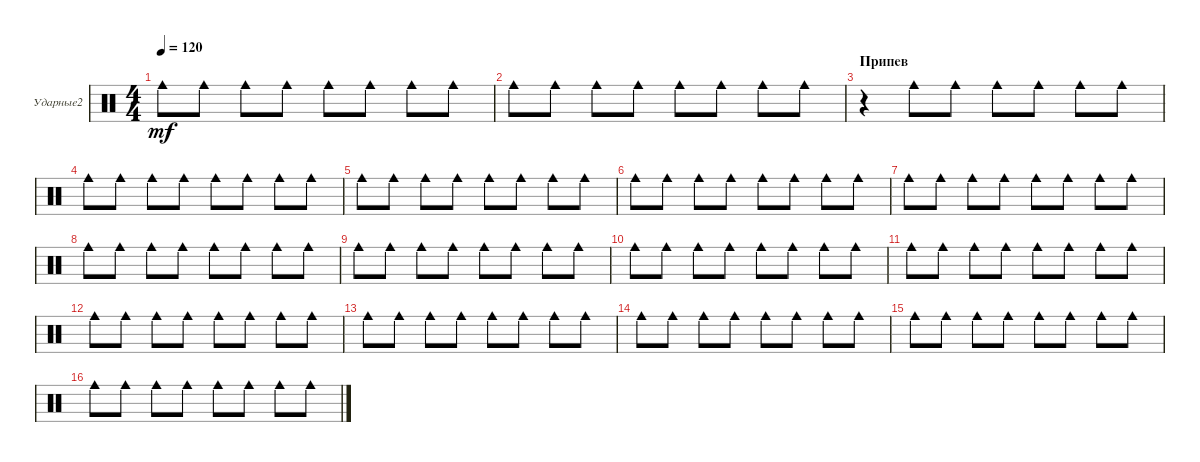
\defaultSystemsLayout 4
\bracketExtendMode groupsimilarinstruments
\firstSystemTrackNameOrientation horizontal
\otherSystemsTrackNameOrientation horizontal
\track ("Е.Кулаков" "Ударные2") {instrument percussion}
\staff {score}
\articulation defaults
\ts (4 4)
\tempo 120
\clef neutral
\ks c "Cowbell medium (hit)".8{dy mf} "Cowbell medium (hit)".8 "Cowbell medium (hit)".8 "Cowbell medium (hit)".8 "Cowbell medium (hit)".8 "Cowbell medium (hit)".8 "Cowbell medium (hit)".8 "Cowbell medium (hit)".8
|
"Cowbell medium (hit)".8 "Cowbell medium (hit)".8 "Cowbell medium (hit)".8 "Cowbell medium (hit)".8 "Cowbell medium (hit)".8 "Cowbell medium (hit)".8 "Cowbell medium (hit)".8 "Cowbell medium (hit)".8 |
\section ("" "Припев")
r.4 "Cowbell medium (hit)".8 "Cowbell medium (hit)".8 "Cowbell medium (hit)".8 "Cowbell medium (hit)".8 "Cowbell medium (hit)".8 "Cowbell medium (hit)".8 |
"Cowbell medium (hit)".8 "Cowbell medium (hit)".8 "Cowbell medium (hit)".8 "Cowbell medium (hit)".8 "Cowbell medium (hit)".8 "Cowbell medium (hit)".8 "Cowbell medium (hit)".8 "Cowbell medium (hit)".8 |
"Cowbell medium (hit)".8 "Cowbell medium (hit)".8 "Cowbell medium (hit)".8 "Cowbell medium (hit)".8 "Cowbell medium (hit)".8 "Cowbell medium (hit)".8 "Cowbell medium (hit)".8 "Cowbell medium (hit)".8 |
"Cowbell medium (hit)".8 "Cowbell medium (hit)".8 "Cowbell medium (hit)".8 "Cowbell medium (hit)".8 "Cowbell medium (hit)".8 "Cowbell medium (hit)".8 "Cowbell medium (hit)".8 "Cowbell medium (hit)".8 |
"Cowbell medium (hit)".8 "Cowbell medium (hit)".8 "Cowbell medium (hit)".8 "Cowbell medium (hit)".8 "Cowbell medium (hit)".8 "Cowbell medium (hit)".8 "Cowbell medium (hit)".8 "Cowbell medium (hit)".8 |
"Cowbell medium (hit)".8 "Cowbell medium (hit)".8 "Cowbell medium (hit)".8 "Cowbell medium (hit)".8 "Cowbell medium (hit)".8 "Cowbell medium (hit)".8 "Cowbell medium (hit)".8 "Cowbell medium (hit)".8 |
"Cowbell medium (hit)".8 "Cowbell medium (hit)".8 "Cowbell medium (hit)".8 "Cowbell medium (hit)".8 "Cowbell medium (hit)".8 "Cowbell medium (hit)".8 "Cowbell medium (hit)".8 "Cowbell medium (hit)".8 |
"Cowbell medium (hit)".8 "Cowbell medium (hit)".8 "Cowbell medium (hit)".8 "Cowbell medium (hit)".8 "Cowbell medium (hit)".8 "Cowbell medium (hit)".8 "Cowbell medium (hit)".8 "Cowbell medium (hit)".8 |
"Cowbell medium (hit)".8 "Cowbell medium (hit)".8 "Cowbell medium (hit)".8 "Cowbell medium (hit)".8 "Cowbell medium (hit)".8 "Cowbell medium (hit)".8 "Cowbell medium (hit)".8 "Cowbell medium (hit)".8 |
"Cowbell medium (hit)".8 "Cowbell medium (hit)".8 "Cowbell medium (hit)".8 "Cowbell medium (hit)".8 "Cowbell medium (hit)".8 "Cowbell medium (hit)".8 "Cowbell medium (hit)".8 "Cowbell medium (hit)".8 |
"Cowbell medium (hit)".8 "Cowbell medium (hit)".8 "Cowbell medium (hit)".8 "Cowbell medium (hit)".8 "Cowbell medium (hit)".8 "Cowbell medium (hit)".8 "Cowbell medium (hit)".8 "Cowbell medium (hit)".8 |
"Cowbell medium (hit)".8 "Cowbell medium (hit)".8 "Cowbell medium (hit)".8 "Cowbell medium (hit)".8 "Cowbell medium (hit)".8 "Cowbell medium (hit)".8 "Cowbell medium (hit)".8 "Cowbell medium (hit)".8 |
"Cowbell medium (hit)".8 "Cowbell medium (hit)".8 "Cowbell medium (hit)".8 "Cowbell medium (hit)".8 "Cowbell medium (hit)".8 "Cowbell medium (hit)".8 "Cowbell medium (hit)".8 "Cowbell medium (hit)".8 |
"Cowbell medium (hit)".8 "Cowbell medium (hit)".8 "Cowbell medium (hit)".8 "Cowbell medium (hit)".8 "Cowbell medium (hit)".8 "Cowbell medium (hit)".8 "Cowbell medium (hit)".8 "Cowbell medium (hit)".8
